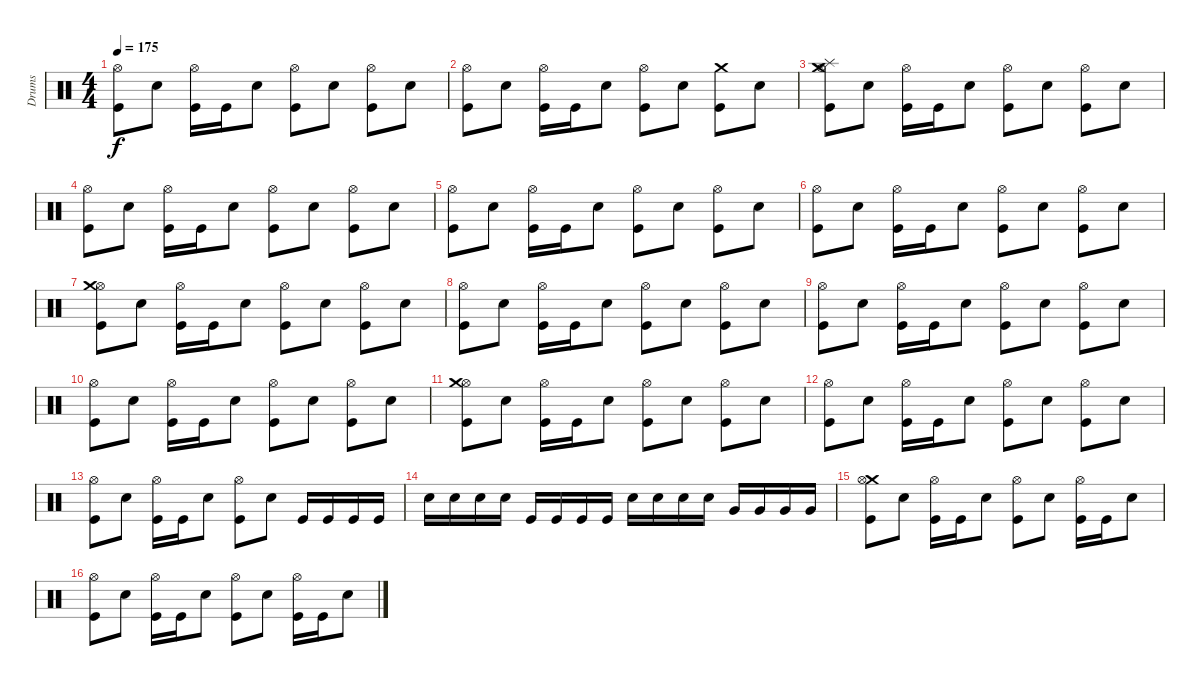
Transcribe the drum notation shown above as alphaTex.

\track ("Drums" "Drums") {instrument percussion}
\staff {score}
\articulation defaults
\ts (4 4)
\tempo 175
\clef neutral
\ks c
("Hi-Hat (open)" "Kick (hit)").8{dy f} "Snare (hit) 2".8 ("Hi-Hat (open)" "Kick (hit)").16 "Kick (hit)".16 "Snare (hit) 2".8 ("Hi-Hat (open)" "Kick (hit)").8 "Snare (hit) 2".8 ("Hi-Hat (open)" "Kick (hit)").8 "Snare (hit) 2".8 |
("Hi-Hat (open)" "Kick (hit)").8 "Snare (hit) 2".8 ("Hi-Hat (open)" "Kick (hit)").16 "Kick (hit)".16 "Snare (hit) 2".8 ("Hi-Hat (open)" "Kick (hit)").8 "Snare (hit) 2".8 ("Crash medium (hit)" "Kick (hit)").8 "Snare (hit) 2".8 |
("Splash (hit)" "Hi-Hat (open)" "Crash medium (hit)" "Kick (hit)").8 "Snare (hit) 2".8 ("Hi-Hat (open)" "Kick (hit)").16 "Kick (hit)".16 "Snare (hit) 2".8 ("Hi-Hat (open)" "Kick (hit)").8 "Snare (hit) 2".8 ("Hi-Hat (open)" "Kick (hit)").8 "Snare (hit) 2".8 |
("Hi-Hat (open)" "Kick (hit)").8 "Snare (hit) 2".8 ("Hi-Hat (open)" "Kick (hit)").16 "Kick (hit)".16 "Snare (hit) 2".8 ("Hi-Hat (open)" "Kick (hit)").8 "Snare (hit) 2".8 ("Hi-Hat (open)" "Kick (hit)").8 "Snare (hit) 2".8 |
("Hi-Hat (open)" "Kick (hit)").8 "Snare (hit) 2".8 ("Hi-Hat (open)" "Kick (hit)").16 "Kick (hit)".16 "Snare (hit) 2".8 ("Hi-Hat (open)" "Kick (hit)").8 "Snare (hit) 2".8 ("Hi-Hat (open)" "Kick (hit)").8 "Snare (hit) 2".8 |
("Hi-Hat (open)" "Kick (hit)").8 "Snare (hit) 2".8 ("Hi-Hat (open)" "Kick (hit)").16 "Kick (hit)".16 "Snare (hit) 2".8 ("Hi-Hat (open)" "Kick (hit)").8 "Snare (hit) 2".8 ("Hi-Hat (open)" "Kick (hit)").8 "Snare (hit) 2".8 |
("Hi-Hat (open)" "Crash medium (hit)" "Kick (hit)").8 "Snare (hit) 2".8 ("Hi-Hat (open)" "Kick (hit)").16 "Kick (hit)".16 "Snare (hit) 2".8 ("Hi-Hat (open)" "Kick (hit)").8 "Snare (hit) 2".8 ("Hi-Hat (open)" "Kick (hit)").8 "Snare (hit) 2".8 |
("Hi-Hat (open)" "Kick (hit)").8 "Snare (hit) 2".8 ("Hi-Hat (open)" "Kick (hit)").16 "Kick (hit)".16 "Snare (hit) 2".8 ("Hi-Hat (open)" "Kick (hit)").8 "Snare (hit) 2".8 ("Hi-Hat (open)" "Kick (hit)").8 "Snare (hit) 2".8 |
("Hi-Hat (open)" "Kick (hit)").8 "Snare (hit) 2".8 ("Hi-Hat (open)" "Kick (hit)").16 "Kick (hit)".16 "Snare (hit) 2".8 ("Hi-Hat (open)" "Kick (hit)").8 "Snare (hit) 2".8 ("Hi-Hat (open)" "Kick (hit)").8 "Snare (hit) 2".8 |
("Hi-Hat (open)" "Kick (hit)").8 "Snare (hit) 2".8 ("Hi-Hat (open)" "Kick (hit)").16 "Kick (hit)".16 "Snare (hit) 2".8 ("Hi-Hat (open)" "Kick (hit)").8 "Snare (hit) 2".8 ("Hi-Hat (open)" "Kick (hit)").8 "Snare (hit) 2".8 |
("Hi-Hat (open)" "Crash medium (hit)" "Kick (hit)").8 "Snare (hit) 2".8 ("Hi-Hat (open)" "Kick (hit)").16 "Kick (hit)".16 "Snare (hit) 2".8 ("Hi-Hat (open)" "Kick (hit)").8 "Snare (hit) 2".8 ("Hi-Hat (open)" "Kick (hit)").8 "Snare (hit) 2".8 |
("Hi-Hat (open)" "Kick (hit)").8 "Snare (hit) 2".8 ("Hi-Hat (open)" "Kick (hit)").16 "Kick (hit)".16 "Snare (hit) 2".8 ("Hi-Hat (open)" "Kick (hit)").8 "Snare (hit) 2".8 ("Hi-Hat (open)" "Kick (hit)").8 "Snare (hit) 2".8 |
("Hi-Hat (open)" "Kick (hit)").8 "Snare (hit) 2".8 ("Hi-Hat (open)" "Kick (hit)").16 "Kick (hit)".16 "Snare (hit) 2".8 ("Hi-Hat (open)" "Kick (hit)").8 "Snare (hit) 2".8 "Kick (hit)".16 "Kick (hit)".16 "Kick (hit)".16 "Kick (hit)".16 |
"Snare (hit) 2".16 "Snare (hit) 2".16 "Snare (hit) 2".16 "Snare (hit) 2".16 "Kick (hit)".16 "Kick (hit)".16 "Kick (hit)".16 "Kick (hit)".16 "Snare (hit) 2".16 "Snare (hit) 2".16 "Snare (hit) 2".16 "Snare (hit) 2".16 "Very Low Tom (hit)".16 "Very Low Tom (hit)".16 "Very Low Tom (hit)".16 "Very Low Tom (hit)".16 |
("Crash medium (hit)" "Hi-Hat (open)" "Kick (hit)").8 "Snare (hit) 2".8 ("Hi-Hat (open)" "Kick (hit)").16 "Kick (hit)".16 "Snare (hit) 2".8 ("Hi-Hat (open)" "Kick (hit)").8 "Snare (hit) 2".8 ("Hi-Hat (open)" "Kick (hit)").16 "Kick (hit)".16 "Snare (hit) 2".8 |
("Hi-Hat (open)" "Kick (hit)").8 "Snare (hit) 2".8 ("Hi-Hat (open)" "Kick (hit)").16 "Kick (hit)".16 "Snare (hit) 2".8 ("Hi-Hat (open)" "Kick (hit)").8 "Snare (hit) 2".8 ("Hi-Hat (open)" "Kick (hit)").16 "Kick (hit)".16 "Snare (hit) 2".8
